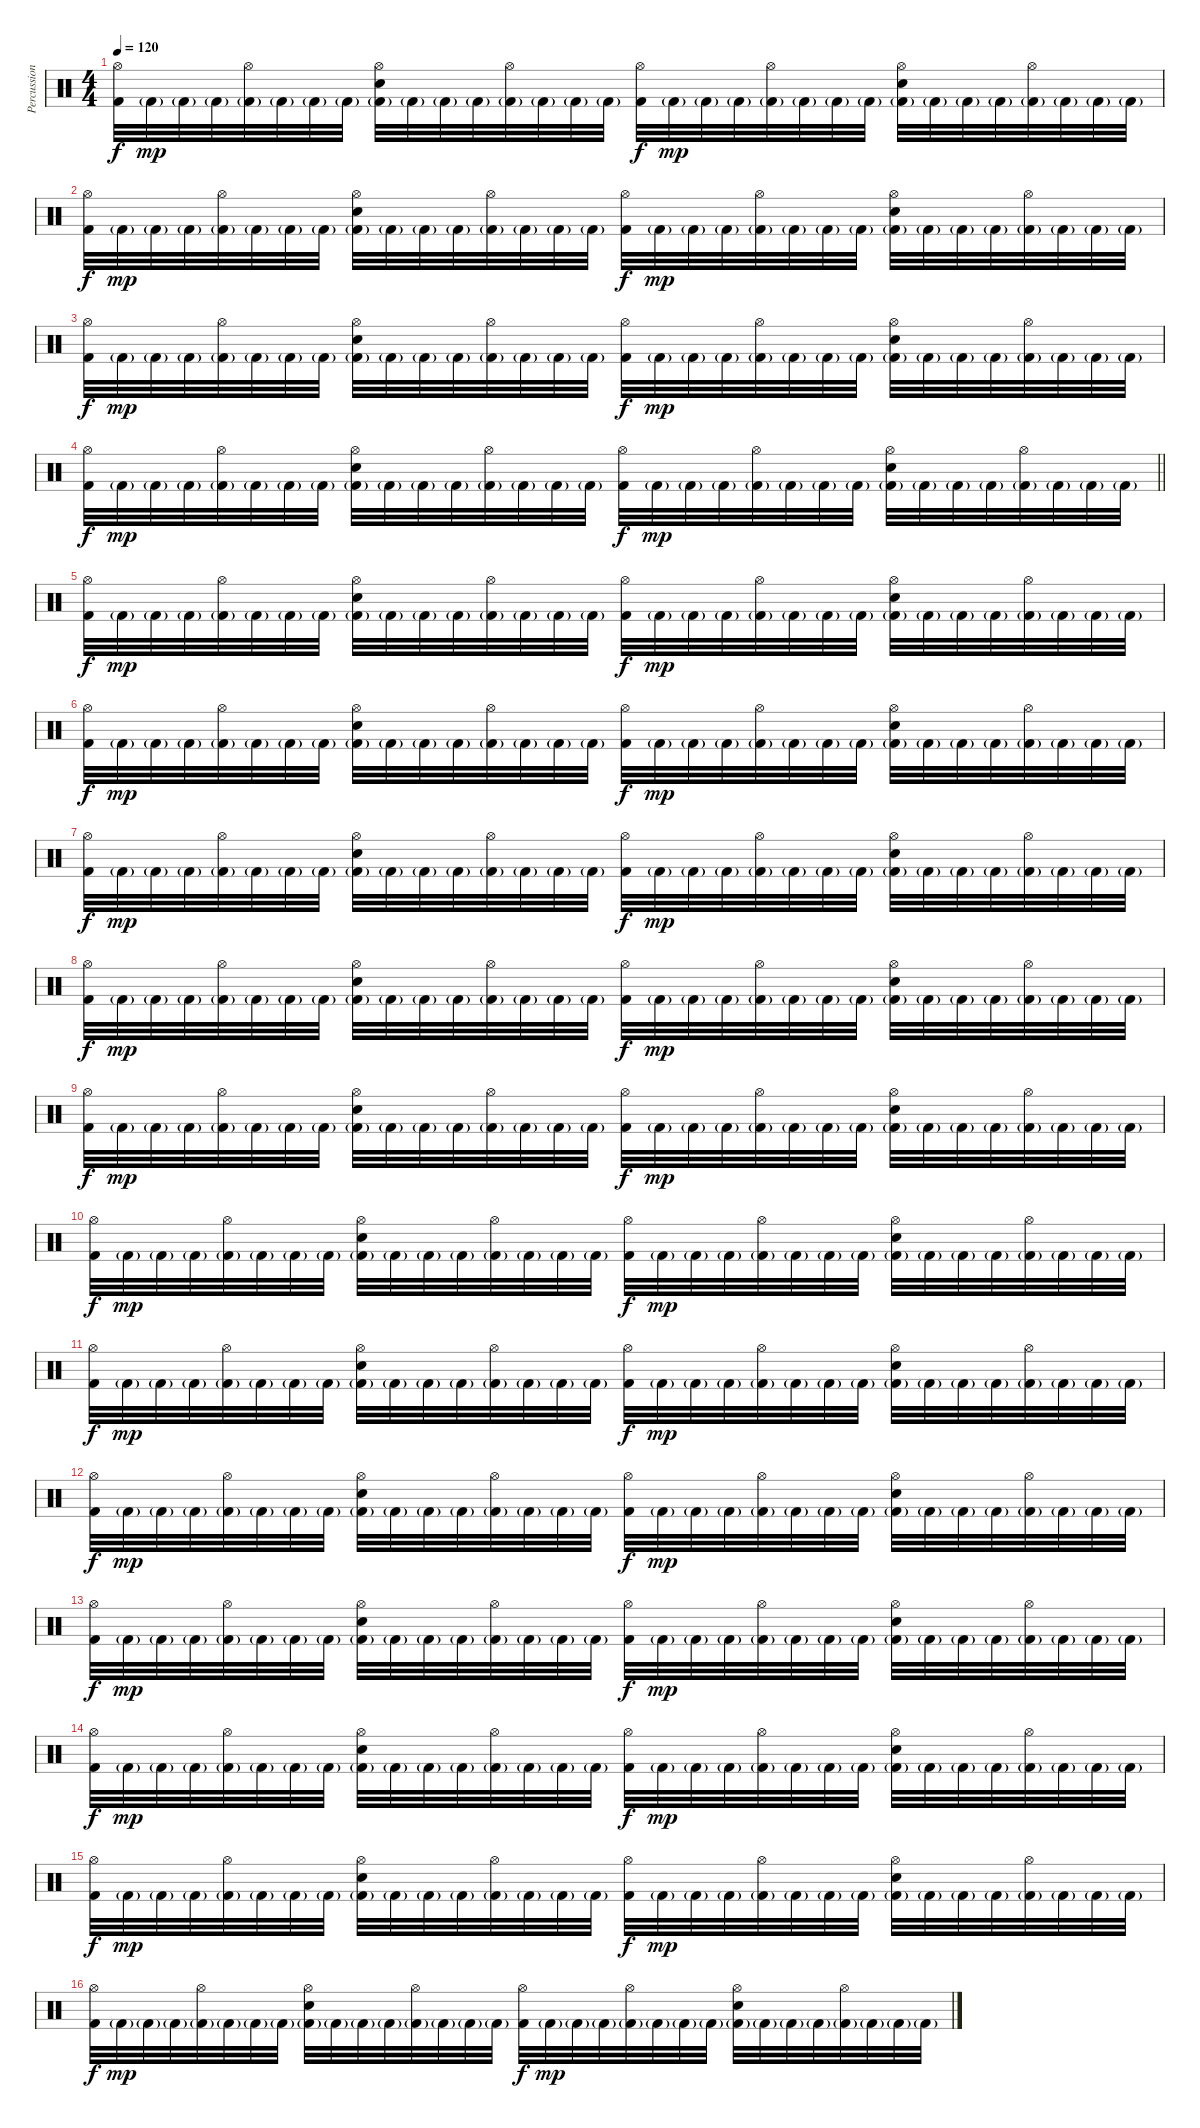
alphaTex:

\track ("Percussion" "Percussion") {instrument percussion}
\staff {score}
\articulation defaults
\ts (4 4)
\tempo 120
\clef neutral
\ks c
("Hi-Hat (open)" "Kick (hit) 2").32{dy f} "Kick (hit) 2"{g}.32{dy mp} "Kick (hit) 2"{g}.32 "Kick (hit) 2"{g}.32 ("Hi-Hat (open)" "Kick (hit) 2"{g}).32 "Kick (hit) 2"{g}.32 "Kick (hit) 2"{g}.32 "Kick (hit) 2"{g}.32 ("Hi-Hat (open)" "Electric Snare (hit)" "Kick (hit) 2"{g}).32 "Kick (hit) 2"{g}.32 "Kick (hit) 2"{g}.32 "Kick (hit) 2"{g}.32 ("Hi-Hat (open)" "Kick (hit) 2"{g}).32 "Kick (hit) 2"{g}.32 "Kick (hit) 2"{g}.32 "Kick (hit) 2"{g}.32 ("Hi-Hat (open)" "Kick (hit) 2").32{dy f} "Kick (hit) 2"{g}.32{dy mp} "Kick (hit) 2"{g}.32 "Kick (hit) 2"{g}.32 ("Hi-Hat (open)" "Kick (hit) 2"{g}).32 "Kick (hit) 2"{g}.32 "Kick (hit) 2"{g}.32 "Kick (hit) 2"{g}.32 ("Hi-Hat (open)" "Electric Snare (hit)" "Kick (hit) 2"{g}).32 "Kick (hit) 2"{g}.32 "Kick (hit) 2"{g}.32 "Kick (hit) 2"{g}.32 ("Hi-Hat (open)" "Kick (hit) 2"{g}).32 "Kick (hit) 2"{g}.32 "Kick (hit) 2"{g}.32 "Kick (hit) 2"{g}.32 |
("Hi-Hat (open)" "Kick (hit) 2").32{dy f} "Kick (hit) 2"{g}.32{dy mp} "Kick (hit) 2"{g}.32 "Kick (hit) 2"{g}.32 ("Hi-Hat (open)" "Kick (hit) 2"{g}).32 "Kick (hit) 2"{g}.32 "Kick (hit) 2"{g}.32 "Kick (hit) 2"{g}.32 ("Hi-Hat (open)" "Electric Snare (hit)" "Kick (hit) 2"{g}).32 "Kick (hit) 2"{g}.32 "Kick (hit) 2"{g}.32 "Kick (hit) 2"{g}.32 ("Hi-Hat (open)" "Kick (hit) 2"{g}).32 "Kick (hit) 2"{g}.32 "Kick (hit) 2"{g}.32 "Kick (hit) 2"{g}.32 ("Hi-Hat (open)" "Kick (hit) 2").32{dy f} "Kick (hit) 2"{g}.32{dy mp} "Kick (hit) 2"{g}.32 "Kick (hit) 2"{g}.32 ("Hi-Hat (open)" "Kick (hit) 2"{g}).32 "Kick (hit) 2"{g}.32 "Kick (hit) 2"{g}.32 "Kick (hit) 2"{g}.32 ("Hi-Hat (open)" "Electric Snare (hit)" "Kick (hit) 2"{g}).32 "Kick (hit) 2"{g}.32 "Kick (hit) 2"{g}.32 "Kick (hit) 2"{g}.32 ("Hi-Hat (open)" "Kick (hit) 2"{g}).32 "Kick (hit) 2"{g}.32 "Kick (hit) 2"{g}.32 "Kick (hit) 2"{g}.32 |
("Hi-Hat (open)" "Kick (hit) 2").32{dy f} "Kick (hit) 2"{g}.32{dy mp} "Kick (hit) 2"{g}.32 "Kick (hit) 2"{g}.32 ("Hi-Hat (open)" "Kick (hit) 2"{g}).32 "Kick (hit) 2"{g}.32 "Kick (hit) 2"{g}.32 "Kick (hit) 2"{g}.32 ("Hi-Hat (open)" "Electric Snare (hit)" "Kick (hit) 2"{g}).32 "Kick (hit) 2"{g}.32 "Kick (hit) 2"{g}.32 "Kick (hit) 2"{g}.32 ("Hi-Hat (open)" "Kick (hit) 2"{g}).32 "Kick (hit) 2"{g}.32 "Kick (hit) 2"{g}.32 "Kick (hit) 2"{g}.32 ("Hi-Hat (open)" "Kick (hit) 2").32{dy f} "Kick (hit) 2"{g}.32{dy mp} "Kick (hit) 2"{g}.32 "Kick (hit) 2"{g}.32 ("Hi-Hat (open)" "Kick (hit) 2"{g}).32 "Kick (hit) 2"{g}.32 "Kick (hit) 2"{g}.32 "Kick (hit) 2"{g}.32 ("Hi-Hat (open)" "Electric Snare (hit)" "Kick (hit) 2"{g}).32 "Kick (hit) 2"{g}.32 "Kick (hit) 2"{g}.32 "Kick (hit) 2"{g}.32 ("Hi-Hat (open)" "Kick (hit) 2"{g}).32 "Kick (hit) 2"{g}.32 "Kick (hit) 2"{g}.32 "Kick (hit) 2"{g}.32 |
\barLineRight lightlight
("Hi-Hat (open)" "Kick (hit) 2").32{dy f} "Kick (hit) 2"{g}.32{dy mp} "Kick (hit) 2"{g}.32 "Kick (hit) 2"{g}.32 ("Hi-Hat (open)" "Kick (hit) 2"{g}).32 "Kick (hit) 2"{g}.32 "Kick (hit) 2"{g}.32 "Kick (hit) 2"{g}.32 ("Hi-Hat (open)" "Electric Snare (hit)" "Kick (hit) 2"{g}).32 "Kick (hit) 2"{g}.32 "Kick (hit) 2"{g}.32 "Kick (hit) 2"{g}.32 ("Hi-Hat (open)" "Kick (hit) 2"{g}).32 "Kick (hit) 2"{g}.32 "Kick (hit) 2"{g}.32 "Kick (hit) 2"{g}.32 ("Hi-Hat (open)" "Kick (hit) 2").32{dy f} "Kick (hit) 2"{g}.32{dy mp} "Kick (hit) 2"{g}.32 "Kick (hit) 2"{g}.32 ("Hi-Hat (open)" "Kick (hit) 2"{g}).32 "Kick (hit) 2"{g}.32 "Kick (hit) 2"{g}.32 "Kick (hit) 2"{g}.32 ("Hi-Hat (open)" "Electric Snare (hit)" "Kick (hit) 2"{g}).32 "Kick (hit) 2"{g}.32 "Kick (hit) 2"{g}.32 "Kick (hit) 2"{g}.32 ("Hi-Hat (open)" "Kick (hit) 2"{g}).32 "Kick (hit) 2"{g}.32 "Kick (hit) 2"{g}.32 "Kick (hit) 2"{g}.32 |
\section ("" "")
("Hi-Hat (open)" "Kick (hit) 2").32{dy f} "Kick (hit) 2"{g}.32{dy mp} "Kick (hit) 2"{g}.32 "Kick (hit) 2"{g}.32 ("Hi-Hat (open)" "Kick (hit) 2"{g}).32 "Kick (hit) 2"{g}.32 "Kick (hit) 2"{g}.32 "Kick (hit) 2"{g}.32 ("Hi-Hat (open)" "Electric Snare (hit)" "Kick (hit) 2"{g}).32 "Kick (hit) 2"{g}.32 "Kick (hit) 2"{g}.32 "Kick (hit) 2"{g}.32 ("Hi-Hat (open)" "Kick (hit) 2"{g}).32 "Kick (hit) 2"{g}.32 "Kick (hit) 2"{g}.32 "Kick (hit) 2"{g}.32 ("Hi-Hat (open)" "Kick (hit) 2").32{dy f} "Kick (hit) 2"{g}.32{dy mp} "Kick (hit) 2"{g}.32 "Kick (hit) 2"{g}.32 ("Hi-Hat (open)" "Kick (hit) 2"{g}).32 "Kick (hit) 2"{g}.32 "Kick (hit) 2"{g}.32 "Kick (hit) 2"{g}.32 ("Hi-Hat (open)" "Electric Snare (hit)" "Kick (hit) 2"{g}).32 "Kick (hit) 2"{g}.32 "Kick (hit) 2"{g}.32 "Kick (hit) 2"{g}.32 ("Hi-Hat (open)" "Kick (hit) 2"{g}).32 "Kick (hit) 2"{g}.32 "Kick (hit) 2"{g}.32 "Kick (hit) 2"{g}.32 |
("Hi-Hat (open)" "Kick (hit) 2").32{dy f} "Kick (hit) 2"{g}.32{dy mp} "Kick (hit) 2"{g}.32 "Kick (hit) 2"{g}.32 ("Hi-Hat (open)" "Kick (hit) 2"{g}).32 "Kick (hit) 2"{g}.32 "Kick (hit) 2"{g}.32 "Kick (hit) 2"{g}.32 ("Hi-Hat (open)" "Electric Snare (hit)" "Kick (hit) 2"{g}).32 "Kick (hit) 2"{g}.32 "Kick (hit) 2"{g}.32 "Kick (hit) 2"{g}.32 ("Hi-Hat (open)" "Kick (hit) 2"{g}).32 "Kick (hit) 2"{g}.32 "Kick (hit) 2"{g}.32 "Kick (hit) 2"{g}.32 ("Hi-Hat (open)" "Kick (hit) 2").32{dy f} "Kick (hit) 2"{g}.32{dy mp} "Kick (hit) 2"{g}.32 "Kick (hit) 2"{g}.32 ("Hi-Hat (open)" "Kick (hit) 2"{g}).32 "Kick (hit) 2"{g}.32 "Kick (hit) 2"{g}.32 "Kick (hit) 2"{g}.32 ("Hi-Hat (open)" "Electric Snare (hit)" "Kick (hit) 2"{g}).32 "Kick (hit) 2"{g}.32 "Kick (hit) 2"{g}.32 "Kick (hit) 2"{g}.32 ("Hi-Hat (open)" "Kick (hit) 2"{g}).32 "Kick (hit) 2"{g}.32 "Kick (hit) 2"{g}.32 "Kick (hit) 2"{g}.32 |
("Hi-Hat (open)" "Kick (hit) 2").32{dy f} "Kick (hit) 2"{g}.32{dy mp} "Kick (hit) 2"{g}.32 "Kick (hit) 2"{g}.32 ("Hi-Hat (open)" "Kick (hit) 2"{g}).32 "Kick (hit) 2"{g}.32 "Kick (hit) 2"{g}.32 "Kick (hit) 2"{g}.32 ("Hi-Hat (open)" "Electric Snare (hit)" "Kick (hit) 2"{g}).32 "Kick (hit) 2"{g}.32 "Kick (hit) 2"{g}.32 "Kick (hit) 2"{g}.32 ("Hi-Hat (open)" "Kick (hit) 2"{g}).32 "Kick (hit) 2"{g}.32 "Kick (hit) 2"{g}.32 "Kick (hit) 2"{g}.32 ("Hi-Hat (open)" "Kick (hit) 2").32{dy f} "Kick (hit) 2"{g}.32{dy mp} "Kick (hit) 2"{g}.32 "Kick (hit) 2"{g}.32 ("Hi-Hat (open)" "Kick (hit) 2"{g}).32 "Kick (hit) 2"{g}.32 "Kick (hit) 2"{g}.32 "Kick (hit) 2"{g}.32 ("Hi-Hat (open)" "Electric Snare (hit)" "Kick (hit) 2"{g}).32 "Kick (hit) 2"{g}.32 "Kick (hit) 2"{g}.32 "Kick (hit) 2"{g}.32 ("Hi-Hat (open)" "Kick (hit) 2"{g}).32 "Kick (hit) 2"{g}.32 "Kick (hit) 2"{g}.32 "Kick (hit) 2"{g}.32 |
("Hi-Hat (open)" "Kick (hit) 2").32{dy f} "Kick (hit) 2"{g}.32{dy mp} "Kick (hit) 2"{g}.32 "Kick (hit) 2"{g}.32 ("Hi-Hat (open)" "Kick (hit) 2"{g}).32 "Kick (hit) 2"{g}.32 "Kick (hit) 2"{g}.32 "Kick (hit) 2"{g}.32 ("Hi-Hat (open)" "Electric Snare (hit)" "Kick (hit) 2"{g}).32 "Kick (hit) 2"{g}.32 "Kick (hit) 2"{g}.32 "Kick (hit) 2"{g}.32 ("Hi-Hat (open)" "Kick (hit) 2"{g}).32 "Kick (hit) 2"{g}.32 "Kick (hit) 2"{g}.32 "Kick (hit) 2"{g}.32 ("Hi-Hat (open)" "Kick (hit) 2").32{dy f} "Kick (hit) 2"{g}.32{dy mp} "Kick (hit) 2"{g}.32 "Kick (hit) 2"{g}.32 ("Hi-Hat (open)" "Kick (hit) 2"{g}).32 "Kick (hit) 2"{g}.32 "Kick (hit) 2"{g}.32 "Kick (hit) 2"{g}.32 ("Hi-Hat (open)" "Electric Snare (hit)" "Kick (hit) 2"{g}).32 "Kick (hit) 2"{g}.32 "Kick (hit) 2"{g}.32 "Kick (hit) 2"{g}.32 ("Hi-Hat (open)" "Kick (hit) 2"{g}).32 "Kick (hit) 2"{g}.32 "Kick (hit) 2"{g}.32 "Kick (hit) 2"{g}.32 |
("Hi-Hat (open)" "Kick (hit) 2").32{dy f} "Kick (hit) 2"{g}.32{dy mp} "Kick (hit) 2"{g}.32 "Kick (hit) 2"{g}.32 ("Hi-Hat (open)" "Kick (hit) 2"{g}).32 "Kick (hit) 2"{g}.32 "Kick (hit) 2"{g}.32 "Kick (hit) 2"{g}.32 ("Hi-Hat (open)" "Electric Snare (hit)" "Kick (hit) 2"{g}).32 "Kick (hit) 2"{g}.32 "Kick (hit) 2"{g}.32 "Kick (hit) 2"{g}.32 ("Hi-Hat (open)" "Kick (hit) 2"{g}).32 "Kick (hit) 2"{g}.32 "Kick (hit) 2"{g}.32 "Kick (hit) 2"{g}.32 ("Hi-Hat (open)" "Kick (hit) 2").32{dy f} "Kick (hit) 2"{g}.32{dy mp} "Kick (hit) 2"{g}.32 "Kick (hit) 2"{g}.32 ("Hi-Hat (open)" "Kick (hit) 2"{g}).32 "Kick (hit) 2"{g}.32 "Kick (hit) 2"{g}.32 "Kick (hit) 2"{g}.32 ("Hi-Hat (open)" "Electric Snare (hit)" "Kick (hit) 2"{g}).32 "Kick (hit) 2"{g}.32 "Kick (hit) 2"{g}.32 "Kick (hit) 2"{g}.32 ("Hi-Hat (open)" "Kick (hit) 2"{g}).32 "Kick (hit) 2"{g}.32 "Kick (hit) 2"{g}.32 "Kick (hit) 2"{g}.32 |
("Hi-Hat (open)" "Kick (hit) 2").32{dy f} "Kick (hit) 2"{g}.32{dy mp} "Kick (hit) 2"{g}.32 "Kick (hit) 2"{g}.32 ("Hi-Hat (open)" "Kick (hit) 2"{g}).32 "Kick (hit) 2"{g}.32 "Kick (hit) 2"{g}.32 "Kick (hit) 2"{g}.32 ("Hi-Hat (open)" "Electric Snare (hit)" "Kick (hit) 2"{g}).32 "Kick (hit) 2"{g}.32 "Kick (hit) 2"{g}.32 "Kick (hit) 2"{g}.32 ("Hi-Hat (open)" "Kick (hit) 2"{g}).32 "Kick (hit) 2"{g}.32 "Kick (hit) 2"{g}.32 "Kick (hit) 2"{g}.32 ("Hi-Hat (open)" "Kick (hit) 2").32{dy f} "Kick (hit) 2"{g}.32{dy mp} "Kick (hit) 2"{g}.32 "Kick (hit) 2"{g}.32 ("Hi-Hat (open)" "Kick (hit) 2"{g}).32 "Kick (hit) 2"{g}.32 "Kick (hit) 2"{g}.32 "Kick (hit) 2"{g}.32 ("Hi-Hat (open)" "Electric Snare (hit)" "Kick (hit) 2"{g}).32 "Kick (hit) 2"{g}.32 "Kick (hit) 2"{g}.32 "Kick (hit) 2"{g}.32 ("Hi-Hat (open)" "Kick (hit) 2"{g}).32 "Kick (hit) 2"{g}.32 "Kick (hit) 2"{g}.32 "Kick (hit) 2"{g}.32 |
("Hi-Hat (open)" "Kick (hit) 2").32{dy f} "Kick (hit) 2"{g}.32{dy mp} "Kick (hit) 2"{g}.32 "Kick (hit) 2"{g}.32 ("Hi-Hat (open)" "Kick (hit) 2"{g}).32 "Kick (hit) 2"{g}.32 "Kick (hit) 2"{g}.32 "Kick (hit) 2"{g}.32 ("Hi-Hat (open)" "Electric Snare (hit)" "Kick (hit) 2"{g}).32 "Kick (hit) 2"{g}.32 "Kick (hit) 2"{g}.32 "Kick (hit) 2"{g}.32 ("Hi-Hat (open)" "Kick (hit) 2"{g}).32 "Kick (hit) 2"{g}.32 "Kick (hit) 2"{g}.32 "Kick (hit) 2"{g}.32 ("Hi-Hat (open)" "Kick (hit) 2").32{dy f} "Kick (hit) 2"{g}.32{dy mp} "Kick (hit) 2"{g}.32 "Kick (hit) 2"{g}.32 ("Hi-Hat (open)" "Kick (hit) 2"{g}).32 "Kick (hit) 2"{g}.32 "Kick (hit) 2"{g}.32 "Kick (hit) 2"{g}.32 ("Hi-Hat (open)" "Electric Snare (hit)" "Kick (hit) 2"{g}).32 "Kick (hit) 2"{g}.32 "Kick (hit) 2"{g}.32 "Kick (hit) 2"{g}.32 ("Hi-Hat (open)" "Kick (hit) 2"{g}).32 "Kick (hit) 2"{g}.32 "Kick (hit) 2"{g}.32 "Kick (hit) 2"{g}.32 |
("Hi-Hat (open)" "Kick (hit) 2").32{dy f} "Kick (hit) 2"{g}.32{dy mp} "Kick (hit) 2"{g}.32 "Kick (hit) 2"{g}.32 ("Hi-Hat (open)" "Kick (hit) 2"{g}).32 "Kick (hit) 2"{g}.32 "Kick (hit) 2"{g}.32 "Kick (hit) 2"{g}.32 ("Hi-Hat (open)" "Electric Snare (hit)" "Kick (hit) 2"{g}).32 "Kick (hit) 2"{g}.32 "Kick (hit) 2"{g}.32 "Kick (hit) 2"{g}.32 ("Hi-Hat (open)" "Kick (hit) 2"{g}).32 "Kick (hit) 2"{g}.32 "Kick (hit) 2"{g}.32 "Kick (hit) 2"{g}.32 ("Hi-Hat (open)" "Kick (hit) 2").32{dy f} "Kick (hit) 2"{g}.32{dy mp} "Kick (hit) 2"{g}.32 "Kick (hit) 2"{g}.32 ("Hi-Hat (open)" "Kick (hit) 2"{g}).32 "Kick (hit) 2"{g}.32 "Kick (hit) 2"{g}.32 "Kick (hit) 2"{g}.32 ("Hi-Hat (open)" "Electric Snare (hit)" "Kick (hit) 2"{g}).32 "Kick (hit) 2"{g}.32 "Kick (hit) 2"{g}.32 "Kick (hit) 2"{g}.32 ("Hi-Hat (open)" "Kick (hit) 2"{g}).32 "Kick (hit) 2"{g}.32 "Kick (hit) 2"{g}.32 "Kick (hit) 2"{g}.32 |
("Hi-Hat (open)" "Kick (hit) 2").32{dy f} "Kick (hit) 2"{g}.32{dy mp} "Kick (hit) 2"{g}.32 "Kick (hit) 2"{g}.32 ("Hi-Hat (open)" "Kick (hit) 2"{g}).32 "Kick (hit) 2"{g}.32 "Kick (hit) 2"{g}.32 "Kick (hit) 2"{g}.32 ("Hi-Hat (open)" "Electric Snare (hit)" "Kick (hit) 2"{g}).32 "Kick (hit) 2"{g}.32 "Kick (hit) 2"{g}.32 "Kick (hit) 2"{g}.32 ("Hi-Hat (open)" "Kick (hit) 2"{g}).32 "Kick (hit) 2"{g}.32 "Kick (hit) 2"{g}.32 "Kick (hit) 2"{g}.32 ("Hi-Hat (open)" "Kick (hit) 2").32{dy f} "Kick (hit) 2"{g}.32{dy mp} "Kick (hit) 2"{g}.32 "Kick (hit) 2"{g}.32 ("Hi-Hat (open)" "Kick (hit) 2"{g}).32 "Kick (hit) 2"{g}.32 "Kick (hit) 2"{g}.32 "Kick (hit) 2"{g}.32 ("Hi-Hat (open)" "Electric Snare (hit)" "Kick (hit) 2"{g}).32 "Kick (hit) 2"{g}.32 "Kick (hit) 2"{g}.32 "Kick (hit) 2"{g}.32 ("Hi-Hat (open)" "Kick (hit) 2"{g}).32 "Kick (hit) 2"{g}.32 "Kick (hit) 2"{g}.32 "Kick (hit) 2"{g}.32 |
("Hi-Hat (open)" "Kick (hit) 2").32{dy f} "Kick (hit) 2"{g}.32{dy mp} "Kick (hit) 2"{g}.32 "Kick (hit) 2"{g}.32 ("Hi-Hat (open)" "Kick (hit) 2"{g}).32 "Kick (hit) 2"{g}.32 "Kick (hit) 2"{g}.32 "Kick (hit) 2"{g}.32 ("Hi-Hat (open)" "Electric Snare (hit)" "Kick (hit) 2"{g}).32 "Kick (hit) 2"{g}.32 "Kick (hit) 2"{g}.32 "Kick (hit) 2"{g}.32 ("Hi-Hat (open)" "Kick (hit) 2"{g}).32 "Kick (hit) 2"{g}.32 "Kick (hit) 2"{g}.32 "Kick (hit) 2"{g}.32 ("Hi-Hat (open)" "Kick (hit) 2").32{dy f} "Kick (hit) 2"{g}.32{dy mp} "Kick (hit) 2"{g}.32 "Kick (hit) 2"{g}.32 ("Hi-Hat (open)" "Kick (hit) 2"{g}).32 "Kick (hit) 2"{g}.32 "Kick (hit) 2"{g}.32 "Kick (hit) 2"{g}.32 ("Hi-Hat (open)" "Electric Snare (hit)" "Kick (hit) 2"{g}).32 "Kick (hit) 2"{g}.32 "Kick (hit) 2"{g}.32 "Kick (hit) 2"{g}.32 ("Hi-Hat (open)" "Kick (hit) 2"{g}).32 "Kick (hit) 2"{g}.32 "Kick (hit) 2"{g}.32 "Kick (hit) 2"{g}.32 |
("Hi-Hat (open)" "Kick (hit) 2").32{dy f} "Kick (hit) 2"{g}.32{dy mp} "Kick (hit) 2"{g}.32 "Kick (hit) 2"{g}.32 ("Hi-Hat (open)" "Kick (hit) 2"{g}).32 "Kick (hit) 2"{g}.32 "Kick (hit) 2"{g}.32 "Kick (hit) 2"{g}.32 ("Hi-Hat (open)" "Electric Snare (hit)" "Kick (hit) 2"{g}).32 "Kick (hit) 2"{g}.32 "Kick (hit) 2"{g}.32 "Kick (hit) 2"{g}.32 ("Hi-Hat (open)" "Kick (hit) 2"{g}).32 "Kick (hit) 2"{g}.32 "Kick (hit) 2"{g}.32 "Kick (hit) 2"{g}.32 ("Hi-Hat (open)" "Kick (hit) 2").32{dy f} "Kick (hit) 2"{g}.32{dy mp} "Kick (hit) 2"{g}.32 "Kick (hit) 2"{g}.32 ("Hi-Hat (open)" "Kick (hit) 2"{g}).32 "Kick (hit) 2"{g}.32 "Kick (hit) 2"{g}.32 "Kick (hit) 2"{g}.32 ("Hi-Hat (open)" "Electric Snare (hit)" "Kick (hit) 2"{g}).32 "Kick (hit) 2"{g}.32 "Kick (hit) 2"{g}.32 "Kick (hit) 2"{g}.32 ("Hi-Hat (open)" "Kick (hit) 2"{g}).32 "Kick (hit) 2"{g}.32 "Kick (hit) 2"{g}.32 "Kick (hit) 2"{g}.32 |
("Hi-Hat (open)" "Kick (hit) 2").32{dy f} "Kick (hit) 2"{g}.32{dy mp} "Kick (hit) 2"{g}.32 "Kick (hit) 2"{g}.32 ("Hi-Hat (open)" "Kick (hit) 2"{g}).32 "Kick (hit) 2"{g}.32 "Kick (hit) 2"{g}.32 "Kick (hit) 2"{g}.32 ("Hi-Hat (open)" "Electric Snare (hit)" "Kick (hit) 2"{g}).32 "Kick (hit) 2"{g}.32 "Kick (hit) 2"{g}.32 "Kick (hit) 2"{g}.32 ("Hi-Hat (open)" "Kick (hit) 2"{g}).32 "Kick (hit) 2"{g}.32 "Kick (hit) 2"{g}.32 "Kick (hit) 2"{g}.32 ("Hi-Hat (open)" "Kick (hit) 2").32{dy f} "Kick (hit) 2"{g}.32{dy mp} "Kick (hit) 2"{g}.32 "Kick (hit) 2"{g}.32 ("Hi-Hat (open)" "Kick (hit) 2"{g}).32 "Kick (hit) 2"{g}.32 "Kick (hit) 2"{g}.32 "Kick (hit) 2"{g}.32 ("Hi-Hat (open)" "Electric Snare (hit)" "Kick (hit) 2"{g}).32 "Kick (hit) 2"{g}.32 "Kick (hit) 2"{g}.32 "Kick (hit) 2"{g}.32 ("Hi-Hat (open)" "Kick (hit) 2"{g}).32 "Kick (hit) 2"{g}.32 "Kick (hit) 2"{g}.32 "Kick (hit) 2"{g}.32
